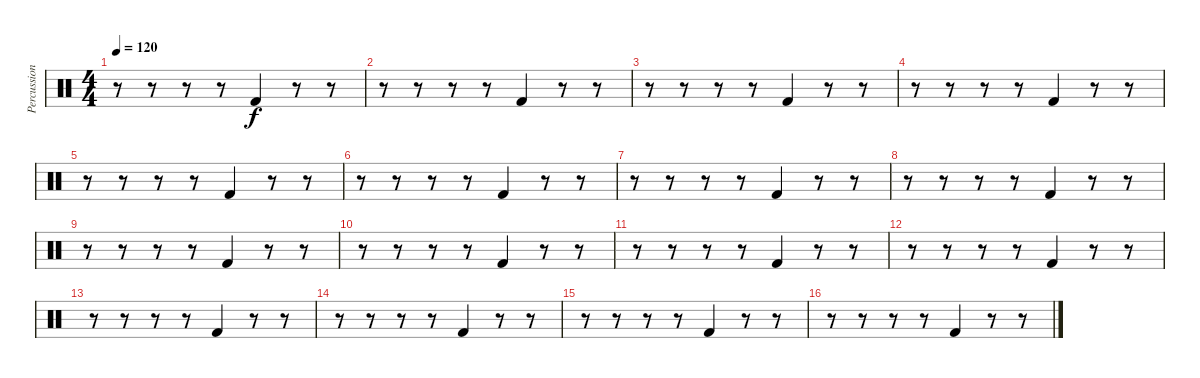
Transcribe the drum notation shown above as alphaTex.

\track ("Percussion" "Percussion") {instrument percussion}
\staff {score}
\articulation defaults
\ts (4 4)
\tempo 120
\clef neutral
\ks c
r.8{dy f} r.8 r.8 r.8 "Kick (hit) 2".4 r.8 r.8 |
r.8 r.8 r.8 r.8 "Kick (hit) 2".4 r.8 r.8 |
r.8 r.8 r.8 r.8 "Kick (hit) 2".4 r.8 r.8 |
r.8 r.8 r.8 r.8 "Kick (hit) 2".4 r.8 r.8 |
r.8 r.8 r.8 r.8 "Kick (hit) 2".4 r.8 r.8 |
r.8 r.8 r.8 r.8 "Kick (hit) 2".4 r.8 r.8 |
r.8 r.8 r.8 r.8 "Kick (hit) 2".4 r.8 r.8 |
r.8 r.8 r.8 r.8 "Kick (hit) 2".4 r.8 r.8 |
r.8 r.8 r.8 r.8 "Kick (hit) 2".4 r.8 r.8 |
r.8 r.8 r.8 r.8 "Kick (hit) 2".4 r.8 r.8 |
r.8 r.8 r.8 r.8 "Kick (hit) 2".4 r.8 r.8 |
r.8 r.8 r.8 r.8 "Kick (hit) 2".4 r.8 r.8 |
r.8 r.8 r.8 r.8 "Kick (hit) 2".4 r.8 r.8 |
r.8 r.8 r.8 r.8 "Kick (hit) 2".4 r.8 r.8 |
r.8 r.8 r.8 r.8 "Kick (hit) 2".4 r.8 r.8 |
r.8 r.8 r.8 r.8 "Kick (hit) 2".4 r.8 r.8
